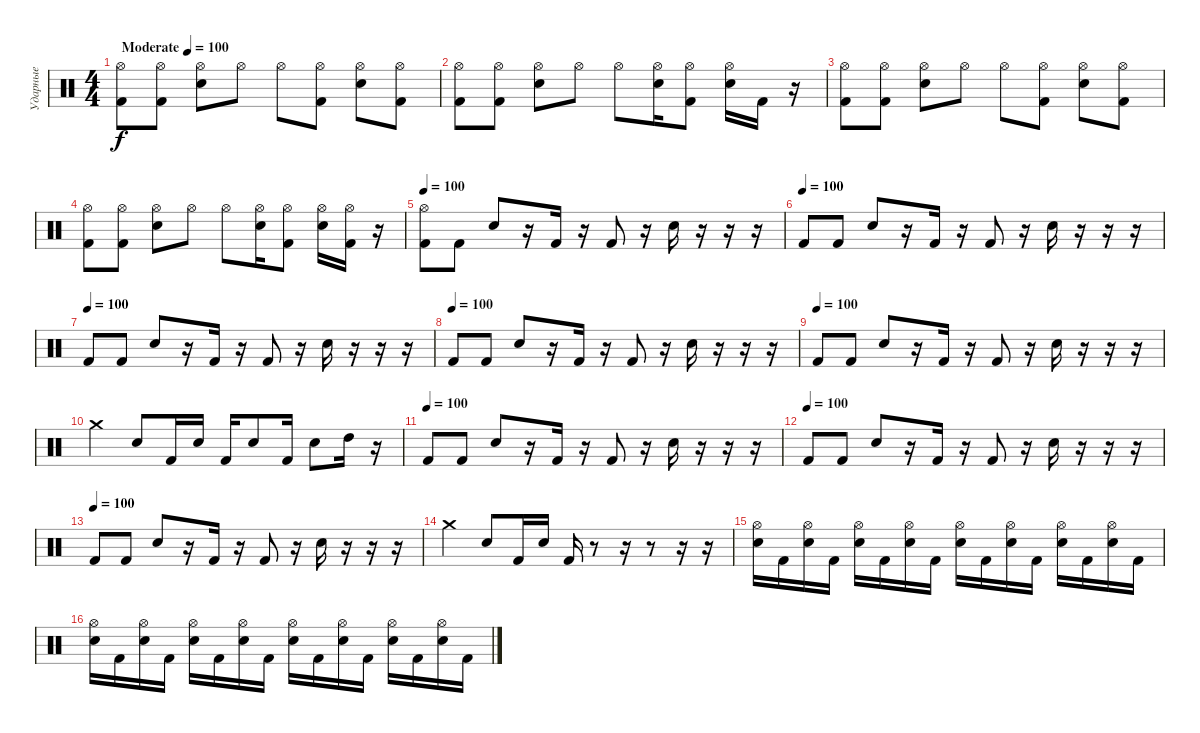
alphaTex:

\track ("Ударные" "Ударные") {instrument percussion}
\staff {score}
\articulation defaults
\ts (4 4)
\tempo (100 "Moderate")
\clef neutral
\ks c
("Hi-Hat (open)" "Kick (hit) 2").8{dy f} ("Hi-Hat (open)" "Kick (hit) 2").8 ("Hi-Hat (open)" "Electric Snare (hit)").8 "Hi-Hat (open)".8 "Hi-Hat (open)".8 ("Hi-Hat (open)" "Kick (hit) 2").8 ("Hi-Hat (open)" "Electric Snare (hit)").8 ("Hi-Hat (open)" "Kick (hit) 2").8 |
("Hi-Hat (open)" "Kick (hit) 2").8 ("Hi-Hat (open)" "Kick (hit) 2").8 ("Hi-Hat (open)" "Electric Snare (hit)").8 "Hi-Hat (open)".8 "Hi-Hat (open)".8 ("Hi-Hat (open)" "Electric Snare (hit)").16 ("Hi-Hat (open)" "Kick (hit) 2").8 ("Hi-Hat (open)" "Electric Snare (hit)").16 "Kick (hit) 2".16 r.16 |
("Hi-Hat (open)" "Kick (hit) 2").8 ("Hi-Hat (open)" "Kick (hit) 2").8 ("Hi-Hat (open)" "Electric Snare (hit)").8 "Hi-Hat (open)".8 "Hi-Hat (open)".8 ("Hi-Hat (open)" "Kick (hit) 2").8 ("Hi-Hat (open)" "Electric Snare (hit)").8 ("Hi-Hat (open)" "Kick (hit) 2").8 |
("Hi-Hat (open)" "Kick (hit) 2").8 ("Hi-Hat (open)" "Kick (hit) 2").8 ("Hi-Hat (open)" "Electric Snare (hit)").8 "Hi-Hat (open)".8 "Hi-Hat (open)".8 ("Hi-Hat (open)" "Electric Snare (hit)").16 ("Hi-Hat (open)" "Kick (hit) 2").8 ("Hi-Hat (open)" "Electric Snare (hit)").16 ("Hi-Hat (open)" "Kick (hit) 2").16 r.16 |
\tempo 100
("Hi-Hat (open)" "Kick (hit) 2").8 "Kick (hit) 2".8 "Electric Snare (hit)".8 r.16 "Kick (hit) 2".16 r.16 "Kick (hit) 2".8 r.16 "Electric Snare (hit)".16 r.16 r.16 r.16 |
\tempo (100)
"Kick (hit) 2".8 "Kick (hit) 2".8 "Electric Snare (hit)".8 r.16 "Kick (hit) 2".16 r.16 "Kick (hit) 2".8 r.16 "Electric Snare (hit)".16 r.16 r.16 r.16 |
\tempo (100)
"Kick (hit) 2".8 "Kick (hit) 2".8 "Electric Snare (hit)".8 r.16 "Kick (hit) 2".16 r.16 "Kick (hit) 2".8 r.16 "Electric Snare (hit)".16 r.16 r.16 r.16 |
\tempo (100)
"Kick (hit) 2".8 "Kick (hit) 2".8 "Electric Snare (hit)".8 r.16 "Kick (hit) 2".16 r.16 "Kick (hit) 2".8 r.16 "Electric Snare (hit)".16 r.16 r.16 r.16 |
\tempo (100)
"Kick (hit) 2".8 "Kick (hit) 2".8 "Electric Snare (hit)".8 r.16 "Kick (hit) 2".16 r.16 "Kick (hit) 2".8 r.16 "Electric Snare (hit)".16 r.16 r.16 r.16 |
"Crash medium (hit)".4 "Electric Snare (hit)".8 "Kick (hit) 2".16 "Electric Snare (hit)".16 "Kick (hit) 2".16 "Electric Snare (hit)".8 "Kick (hit) 2".16 "Electric Snare (hit)".8 "High Tom (hit)".16 r.16 |
\tempo (100)
"Kick (hit) 2".8 "Kick (hit) 2".8 "Electric Snare (hit)".8 r.16 "Kick (hit) 2".16 r.16 "Kick (hit) 2".8 r.16 "Electric Snare (hit)".16 r.16 r.16 r.16 |
\tempo (100)
"Kick (hit) 2".8 "Kick (hit) 2".8 "Electric Snare (hit)".8 r.16 "Kick (hit) 2".16 r.16 "Kick (hit) 2".8 r.16 "Electric Snare (hit)".16 r.16 r.16 r.16 |
\tempo (100)
"Kick (hit) 2".8 "Kick (hit) 2".8 "Electric Snare (hit)".8 r.16 "Kick (hit) 2".16 r.16 "Kick (hit) 2".8 r.16 "Electric Snare (hit)".16 r.16 r.16 r.16 |
"Crash medium (hit)".4 "Electric Snare (hit)".8 "Kick (hit) 2".16 "Electric Snare (hit)".16 "Kick (hit) 2".16 r.8 r.16 r.8 r.16 r.16 |
("Hi-Hat (open)" "Electric Snare (hit)").16 "Kick (hit) 2".16 ("Hi-Hat (open)" "Electric Snare (hit)").16 "Kick (hit) 2".16 ("Hi-Hat (open)" "Electric Snare (hit)").16 "Kick (hit) 2".16 ("Hi-Hat (open)" "Electric Snare (hit)").16 "Kick (hit) 2".16 ("Hi-Hat (open)" "Electric Snare (hit)").16 "Kick (hit) 2".16 ("Hi-Hat (open)" "Electric Snare (hit)").16 "Kick (hit) 2".16 ("Hi-Hat (open)" "Electric Snare (hit)").16 "Kick (hit) 2".16 ("Hi-Hat (open)" "Electric Snare (hit)").16 "Kick (hit) 2".16 |
("Hi-Hat (open)" "Electric Snare (hit)").16 "Kick (hit) 2".16 ("Hi-Hat (open)" "Electric Snare (hit)").16 "Kick (hit) 2".16 ("Hi-Hat (open)" "Electric Snare (hit)").16 "Kick (hit) 2".16 ("Hi-Hat (open)" "Electric Snare (hit)").16 "Kick (hit) 2".16 ("Hi-Hat (open)" "Electric Snare (hit)").16 "Kick (hit) 2".16 ("Hi-Hat (open)" "Electric Snare (hit)").16 "Kick (hit) 2".16 ("Hi-Hat (open)" "Electric Snare (hit)").16 "Kick (hit) 2".16 ("Hi-Hat (open)" "Electric Snare (hit)").16 "Kick (hit) 2".16
